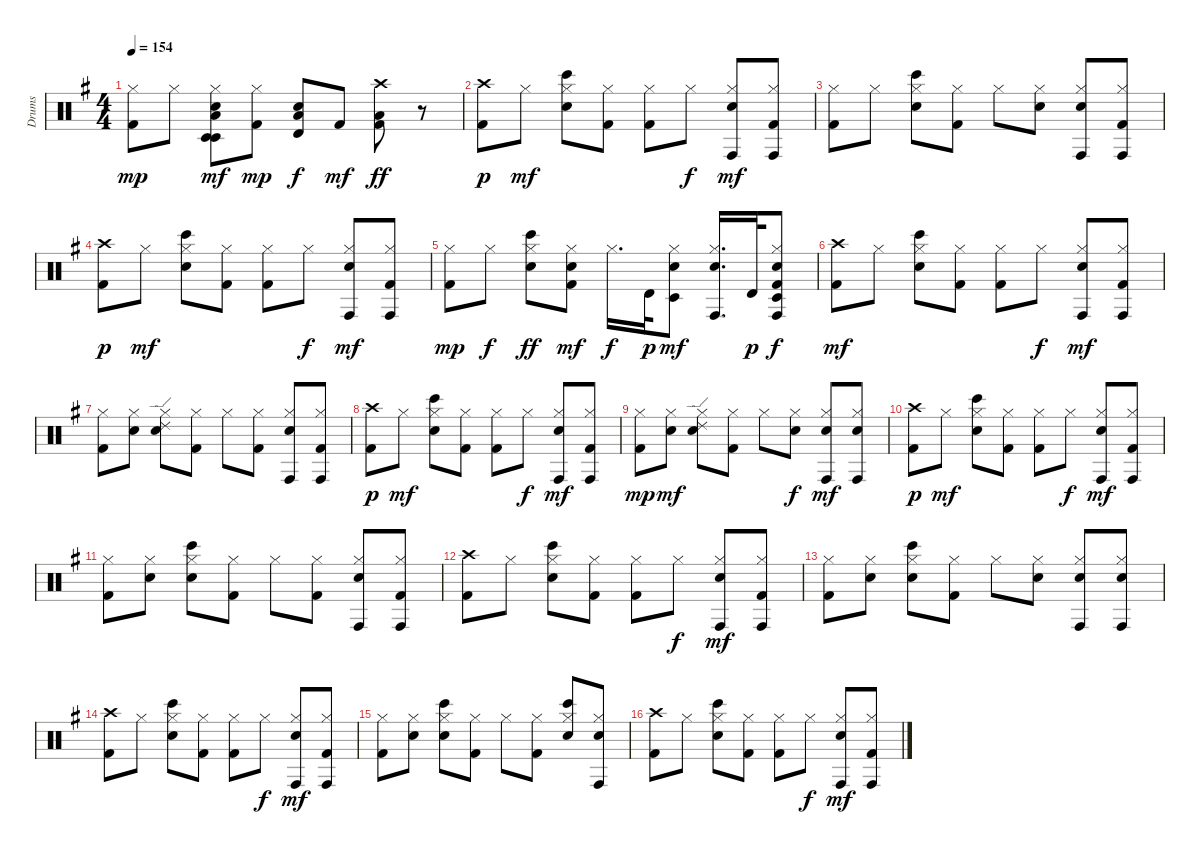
\track ("Drums" "Drums") {instrument percussion}
\staff {score}
\articulation defaults
\ts (4 4)
\tempo 154
\clef neutral
\ks g
("Kick (hit) 2" "Hi-Hat (closed)").8{dy mp} "Hi-Hat (closed)".8 ("Timbale low (hit)" "Electric Snare (hit)" "Low Floor Tom (hit)" "Hi-Hat (closed)" "Timbale low (hit)").8{dy mf} ("Kick (hit) 2" "Hi-Hat (closed)").8{dy mp} ("Electric Snare (hit)" "Low Floor Tom (hit)" "Timbale high (hit)").8{dy f} "Kick (hit) 2".8{dy mf} ("Kick (hit) 2" "Low Floor Tom (hit)" "Crash high (hit)").8{dy ff} r.8 |
("Kick (hit) 2" "Crash high (hit)").8{dy p} "Hi-Hat (closed)".8{dy mf} ("Electric Snare (hit)" "Hi-Hat (closed)" "Bongo High (hit)").8 ("Kick (hit) 2" "Hi-Hat (closed)").8 ("Kick (hit) 2" "Hi-Hat (closed)").8 "Hi-Hat (closed)".8{dy f} ("Electric Snare (hit)" "Hi-Hat (closed)" "Conga high (hit)").8{dy mf} ("Kick (hit) 2" "Hi-Hat (closed)" "Conga high (hit)").8 |
("Kick (hit) 2" "Hi-Hat (closed)").8 "Hi-Hat (closed)".8 ("Electric Snare (hit)" "Hi-Hat (closed)" "Bongo High (hit)").8 ("Kick (hit) 2" "Hi-Hat (closed)").8 "Hi-Hat (closed)".8 ("Electric Snare (hit)" "Hi-Hat (closed)").8 ("Electric Snare (hit)" "Hi-Hat (closed)" "Conga high (hit)").8 ("Kick (hit) 2" "Hi-Hat (closed)" "Conga high (hit)").8 |
("Kick (hit) 2" "Crash high (hit)").8{dy p} "Hi-Hat (closed)".8{dy mf} ("Electric Snare (hit)" "Hi-Hat (closed)" "Bongo High (hit)").8 ("Kick (hit) 2" "Hi-Hat (closed)").8 ("Kick (hit) 2" "Hi-Hat (closed)").8 "Hi-Hat (closed)".8{dy f} ("Electric Snare (hit)" "Hi-Hat (closed)" "Conga high (hit)").8{dy mf} ("Kick (hit) 2" "Hi-Hat (closed)" "Conga high (hit)").8 |
("Kick (hit) 2" "Hi-Hat (closed)").8{dy mp} "Hi-Hat (closed)".8{dy f} ("Electric Snare (hit)" "Hi-Hat (closed)" "Bongo High (hit)").8{dy ff} ("Kick (hit) 2" "Electric Snare (hit)" "Hi-Hat (closed)").8{dy mf} "Hi-Hat (closed)".16{d dy f} "Timbale high (hit)".32{dy p} ("Electric Snare (hit)" "Hi-Hat (closed)" "Timbale low (hit)").8{dy mf} ("Electric Snare (hit)" "Hi-Hat (closed)" "Conga high (hit)").16{d} "Timbale high (hit)".32{dy p} ("Kick (hit) 2" "Electric Snare (hit)" "Hi-Hat (closed)" "Conga high (hit)" "Timbale low (hit)").8{dy f} |
("Kick (hit) 2" "Crash high (hit)").8{dy mf} "Hi-Hat (closed)".8 ("Electric Snare (hit)" "Hi-Hat (closed)" "Bongo High (hit)").8 ("Kick (hit) 2" "Hi-Hat (closed)").8 ("Kick (hit) 2" "Hi-Hat (closed)").8 "Hi-Hat (closed)".8{dy f} ("Electric Snare (hit)" "Hi-Hat (closed)" "Conga high (hit)").8{dy mf} ("Kick (hit) 2" "Hi-Hat (closed)" "Conga high (hit)").8 |
("Kick (hit) 2" "Hi-Hat (closed)").8 ("Electric Snare (hit)" "Hi-Hat (closed)").8 ("Electric Snare (hit)" "Hi-Hat (closed)" "Ride (edge) 2").8 ("Kick (hit) 2" "Hi-Hat (closed)").8 "Hi-Hat (closed)".8 ("Kick (hit) 2" "Hi-Hat (closed)").8 ("Electric Snare (hit)" "Hi-Hat (closed)" "Conga high (hit)").8 ("Kick (hit) 2" "Hi-Hat (closed)" "Conga high (hit)").8 |
("Kick (hit) 2" "Crash high (hit)").8{dy p} "Hi-Hat (closed)".8{dy mf} ("Electric Snare (hit)" "Hi-Hat (closed)" "Bongo High (hit)").8 ("Kick (hit) 2" "Hi-Hat (closed)").8 ("Kick (hit) 2" "Hi-Hat (closed)").8 "Hi-Hat (closed)".8{dy f} ("Electric Snare (hit)" "Hi-Hat (closed)" "Conga high (hit)").8{dy mf} ("Kick (hit) 2" "Hi-Hat (closed)" "Conga high (hit)").8 |
("Kick (hit) 2" "Hi-Hat (closed)").8{dy mp} ("Electric Snare (hit)" "Hi-Hat (closed)").8{dy mf} ("Electric Snare (hit)" "Hi-Hat (closed)" "Ride (edge) 2").8 ("Kick (hit) 2" "Hi-Hat (closed)").8 "Hi-Hat (closed)".8 ("Electric Snare (hit)" "Hi-Hat (closed)").8{dy f} ("Electric Snare (hit)" "Hi-Hat (closed)" "Conga high (hit)").8{dy mf} ("Electric Snare (hit)" "Hi-Hat (closed)" "Conga high (hit)").8 |
("Kick (hit) 2" "Crash high (hit)").8{dy p} "Hi-Hat (closed)".8{dy mf} ("Electric Snare (hit)" "Hi-Hat (closed)" "Bongo High (hit)").8 ("Kick (hit) 2" "Hi-Hat (closed)").8 ("Kick (hit) 2" "Hi-Hat (closed)").8 "Hi-Hat (closed)".8{dy f} ("Electric Snare (hit)" "Hi-Hat (closed)" "Conga high (hit)").8{dy mf} ("Kick (hit) 2" "Hi-Hat (closed)" "Conga high (hit)").8 |
("Kick (hit) 2" "Hi-Hat (closed)").8 ("Electric Snare (hit)" "Hi-Hat (closed)").8 ("Electric Snare (hit)" "Hi-Hat (closed)" "Bongo High (hit)").8 ("Kick (hit) 2" "Hi-Hat (closed)").8 "Hi-Hat (closed)".8 ("Kick (hit) 2" "Hi-Hat (closed)").8 ("Electric Snare (hit)" "Hi-Hat (closed)" "Conga high (hit)").8 ("Kick (hit) 2" "Hi-Hat (closed)" "Conga high (hit)").8 |
("Kick (hit) 2" "Crash high (hit)").8 "Hi-Hat (closed)".8 ("Electric Snare (hit)" "Hi-Hat (closed)" "Bongo High (hit)").8 ("Kick (hit) 2" "Hi-Hat (closed)").8 ("Kick (hit) 2" "Hi-Hat (closed)").8 "Hi-Hat (closed)".8{dy f} ("Electric Snare (hit)" "Hi-Hat (closed)" "Conga high (hit)").8{dy mf} ("Kick (hit) 2" "Hi-Hat (closed)" "Conga high (hit)").8 |
("Kick (hit) 2" "Hi-Hat (closed)").8 ("Electric Snare (hit)" "Hi-Hat (closed)").8 ("Electric Snare (hit)" "Hi-Hat (closed)" "Bongo High (hit)").8 ("Kick (hit) 2" "Hi-Hat (closed)").8 "Hi-Hat (closed)".8 ("Electric Snare (hit)" "Hi-Hat (closed)").8 ("Electric Snare (hit)" "Hi-Hat (closed)" "Conga high (hit)").8 ("Electric Snare (hit)" "Hi-Hat (closed)" "Conga high (hit)").8 |
("Kick (hit) 2" "Crash high (hit)").8 "Hi-Hat (closed)".8 ("Electric Snare (hit)" "Hi-Hat (closed)" "Bongo High (hit)").8 ("Kick (hit) 2" "Hi-Hat (closed)").8 ("Kick (hit) 2" "Hi-Hat (closed)").8 "Hi-Hat (closed)".8{dy f} ("Electric Snare (hit)" "Hi-Hat (closed)" "Conga high (hit)").8{dy mf} ("Kick (hit) 2" "Hi-Hat (closed)" "Conga high (hit)").8 |
("Kick (hit) 2" "Hi-Hat (closed)").8 ("Electric Snare (hit)" "Hi-Hat (closed)").8 ("Electric Snare (hit)" "Hi-Hat (closed)" "Bongo High (hit)").8 ("Kick (hit) 2" "Hi-Hat (closed)").8 "Hi-Hat (closed)".8 ("Kick (hit) 2" "Hi-Hat (closed)").8 ("Electric Snare (hit)" "Hi-Hat (closed)" "Bongo High (hit)").8 ("Electric Snare (hit)" "Hi-Hat (closed)" "Conga high (hit)").8 |
("Kick (hit) 2" "Crash high (hit)").8 "Hi-Hat (closed)".8 ("Electric Snare (hit)" "Hi-Hat (closed)" "Bongo High (hit)").8 ("Kick (hit) 2" "Hi-Hat (closed)").8 ("Kick (hit) 2" "Hi-Hat (closed)").8 "Hi-Hat (closed)".8{dy f} ("Electric Snare (hit)" "Hi-Hat (closed)" "Conga high (hit)").8{dy mf} ("Kick (hit) 2" "Hi-Hat (closed)" "Conga high (hit)").8
